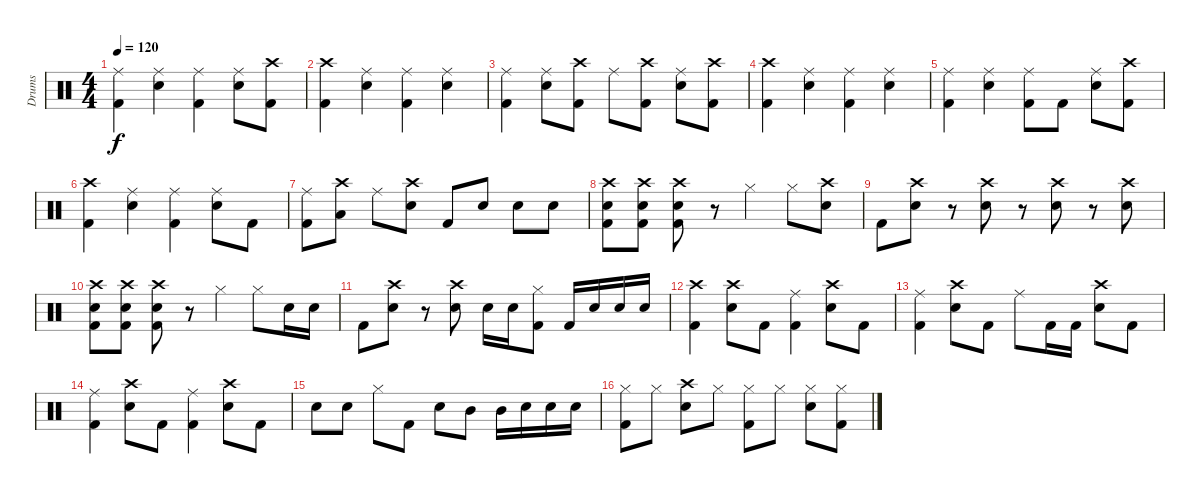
\track ("Drums" "Drums") {instrument percussion}
\staff {score}
\articulation defaults
\ts (4 4)
\tempo 120
\clef neutral
\ks c
("Ride (middle)" "Kick (hit) 2").4{dy f} ("Ride (middle)" "Electric Snare (hit)").4 ("Ride (middle)" "Kick (hit) 2").4 ("Ride (middle)" "Electric Snare (hit)").8 ("Crash high (hit)" "Kick (hit) 2").8 |
("Crash high (hit)" "Kick (hit) 2").4 ("Ride (middle)" "Electric Snare (hit)").4 ("Ride (middle)" "Kick (hit) 2").4 ("Ride (middle)" "Electric Snare (hit)").4 |
("Ride (middle)" "Kick (hit) 2").4 ("Ride (middle)" "Electric Snare (hit)").8 ("Crash high (hit)" "Kick (hit) 2").8 "Ride (middle)".8 ("Crash high (hit)" "Kick (hit) 2").8 ("Ride (middle)" "Electric Snare (hit)").8 ("Crash high (hit)" "Kick (hit) 2").8 |
("Crash high (hit)" "Kick (hit) 2").4 ("Ride (middle)" "Electric Snare (hit)").4 ("Ride (middle)" "Kick (hit) 2").4 ("Ride (middle)" "Electric Snare (hit)").4 |
("Ride (middle)" "Kick (hit) 2").4 ("Ride (middle)" "Electric Snare (hit)").4 ("Ride (middle)" "Kick (hit) 2").8 "Kick (hit) 2".8 ("Ride (middle)" "Electric Snare (hit)").8 ("Crash high (hit)" "Kick (hit) 2").8 |
("Crash high (hit)" "Kick (hit) 2").4 ("Ride (middle)" "Electric Snare (hit)").4 ("Ride (middle)" "Kick (hit) 2").4 ("Ride (middle)" "Electric Snare (hit)").8 "Kick (hit) 2".8 |
("Ride (middle)" "Kick (hit) 2").8 ("Crash high (hit)" "Low Tom (hit)").8 "Ride (middle)".8 ("Crash high (hit)" "Electric Snare (hit)").8 "Kick (hit) 2".8 "Electric Snare (hit)".8 "Electric Snare (hit)".8 "Electric Snare (hit)".8 |
("Crash high (hit)" "Electric Snare (hit)" "Kick (hit) 2").8 ("Crash high (hit)" "Electric Snare (hit)" "Kick (hit) 2").8 ("Crash high (hit)" "Electric Snare (hit)" "Kick (hit) 2").8 r.8 "Hi-Hat (closed)".4 "Hi-Hat (closed)".8 ("Crash high (hit)" "Electric Snare (hit)").8 |
"Kick (hit) 2".8 ("Crash high (hit)" "Electric Snare (hit)").8 r.8 ("Crash high (hit)" "Electric Snare (hit)").8 r.8 ("Crash high (hit)" "Electric Snare (hit)").8 r.8 ("Crash high (hit)" "Electric Snare (hit)").8 |
("Crash high (hit)" "Electric Snare (hit)" "Kick (hit) 2").8 ("Crash high (hit)" "Electric Snare (hit)" "Kick (hit) 2").8 ("Crash high (hit)" "Electric Snare (hit)" "Kick (hit) 2").8 r.8 "Hi-Hat (closed)".4 "Hi-Hat (closed)".8 "Electric Snare (hit)".16 "Electric Snare (hit)".16 |
"Kick (hit) 2".8 ("Crash high (hit)" "Electric Snare (hit)").8 r.8 ("Crash high (hit)" "Electric Snare (hit)").8 "Electric Snare (hit)".16 "Electric Snare (hit)".16 ("Hi-Hat (closed)" "Kick (hit) 2").8 "Kick (hit) 2".16 "Electric Snare (hit)".16 "Electric Snare (hit)".16 "Electric Snare (hit)".16 |
("Crash high (hit)" "Kick (hit) 2").4 ("Crash high (hit)" "Electric Snare (hit)").8 "Kick (hit) 2".8 ("Ride (middle)" "Kick (hit) 2").4 ("Crash high (hit)" "Electric Snare (hit)").8 "Kick (hit) 2".8 |
("Ride (middle)" "Kick (hit) 2").4 ("Crash high (hit)" "Electric Snare (hit)").8 "Kick (hit) 2".8 "Ride (middle)".8 "Kick (hit) 2".16 "Kick (hit) 2".16 ("Crash high (hit)" "Electric Snare (hit)").8 "Kick (hit) 2".8 |
("Ride (middle)" "Kick (hit) 2").4 ("Crash high (hit)" "Electric Snare (hit)").8 "Kick (hit) 2".8 ("Ride (middle)" "Kick (hit) 2").4 ("Crash high (hit)" "Electric Snare (hit)").8 "Kick (hit) 2".8 |
"Electric Snare (hit)".8 "Electric Snare (hit)".8 "Hi-Hat (closed)".8 "Kick (hit) 2".8 "Electric Snare (hit)".8 "Mid Tom (hit)".8 "Mid Tom (hit)".16 "Electric Snare (hit)".16 "Electric Snare (hit)".16 "Electric Snare (hit)".16 |
("Hi-Hat (closed)" "Kick (hit) 2").8 "Hi-Hat (closed)".8 ("Crash high (hit)" "Electric Snare (hit)").8 "Hi-Hat (closed)".8 ("Hi-Hat (closed)" "Kick (hit) 2").8 "Hi-Hat (closed)".8 ("Hi-Hat (closed)" "Electric Snare (hit)").8 ("Hi-Hat (closed)" "Kick (hit) 2").8
